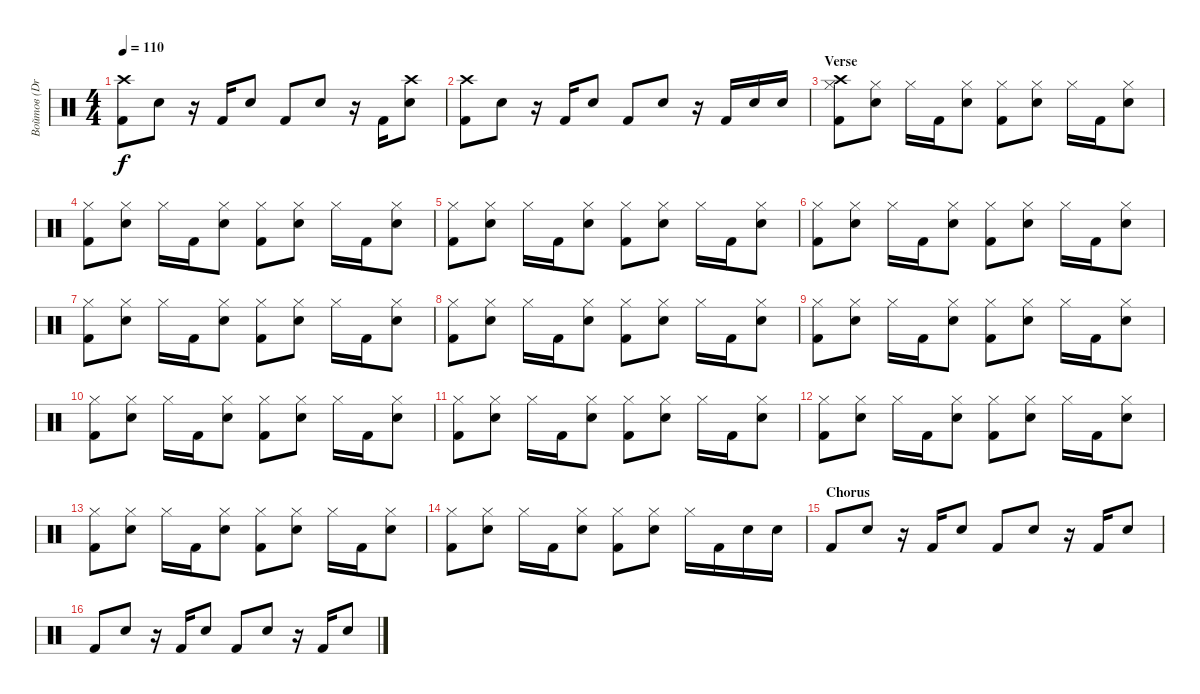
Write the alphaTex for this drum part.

\track ("Войтов (Drums)" "Войтов (Dr") {instrument percussion}
\staff {score}
\articulation defaults
\ts (4 4)
\tempo 110
\clef neutral
\ks c
("Kick (hit) 2" "Crash high (hit)").8{dy f} "Electric Snare (hit)".8 r.16 "Kick (hit) 2".16 "Electric Snare (hit)".8 "Kick (hit) 2".8 "Electric Snare (hit)".8 r.16 "Kick (hit) 2".16 ("Electric Snare (hit)" "Crash high (hit)").8 |
("Kick (hit) 2" "Crash high (hit)").8 "Electric Snare (hit)".8 r.16 "Kick (hit) 2".16 "Electric Snare (hit)".8 "Kick (hit) 2".8 "Electric Snare (hit)".8 r.16 "Kick (hit) 2".16 "Electric Snare (hit)".16 "Electric Snare (hit)".16 |
\section ("" "Verse")
("Kick (hit) 2" "Crash high (hit)" "Hi-Hat (closed)").8 ("Electric Snare (hit)" "Hi-Hat (closed)").8 "Hi-Hat (closed)".16 "Kick (hit) 2".16 ("Electric Snare (hit)" "Hi-Hat (closed)").8 ("Kick (hit) 2" "Hi-Hat (closed)").8 ("Electric Snare (hit)" "Hi-Hat (closed)").8 "Hi-Hat (closed)".16 "Kick (hit) 2".16 ("Electric Snare (hit)" "Hi-Hat (closed)").8 |
("Kick (hit) 2" "Hi-Hat (closed)").8 ("Electric Snare (hit)" "Hi-Hat (closed)").8 "Hi-Hat (closed)".16 "Kick (hit) 2".16 ("Electric Snare (hit)" "Hi-Hat (closed)").8 ("Kick (hit) 2" "Hi-Hat (closed)").8 ("Electric Snare (hit)" "Hi-Hat (closed)").8 "Hi-Hat (closed)".16 "Kick (hit) 2".16 ("Electric Snare (hit)" "Hi-Hat (closed)").8 |
("Kick (hit) 2" "Hi-Hat (closed)").8 ("Electric Snare (hit)" "Hi-Hat (closed)").8 "Hi-Hat (closed)".16 "Kick (hit) 2".16 ("Electric Snare (hit)" "Hi-Hat (closed)").8 ("Kick (hit) 2" "Hi-Hat (closed)").8 ("Electric Snare (hit)" "Hi-Hat (closed)").8 "Hi-Hat (closed)".16 "Kick (hit) 2".16 ("Electric Snare (hit)" "Hi-Hat (closed)").8 |
("Kick (hit) 2" "Hi-Hat (closed)").8 ("Electric Snare (hit)" "Hi-Hat (closed)").8 "Hi-Hat (closed)".16 "Kick (hit) 2".16 ("Electric Snare (hit)" "Hi-Hat (closed)").8 ("Kick (hit) 2" "Hi-Hat (closed)").8 ("Electric Snare (hit)" "Hi-Hat (closed)").8 "Hi-Hat (closed)".16 "Kick (hit) 2".16 ("Electric Snare (hit)" "Hi-Hat (closed)").8 |
("Kick (hit) 2" "Hi-Hat (closed)").8 ("Electric Snare (hit)" "Hi-Hat (closed)").8 "Hi-Hat (closed)".16 "Kick (hit) 2".16 ("Electric Snare (hit)" "Hi-Hat (closed)").8 ("Kick (hit) 2" "Hi-Hat (closed)").8 ("Electric Snare (hit)" "Hi-Hat (closed)").8 "Hi-Hat (closed)".16 "Kick (hit) 2".16 ("Electric Snare (hit)" "Hi-Hat (closed)").8 |
("Kick (hit) 2" "Hi-Hat (closed)").8 ("Electric Snare (hit)" "Hi-Hat (closed)").8 "Hi-Hat (closed)".16 "Kick (hit) 2".16 ("Electric Snare (hit)" "Hi-Hat (closed)").8 ("Kick (hit) 2" "Hi-Hat (closed)").8 ("Electric Snare (hit)" "Hi-Hat (closed)").8 "Hi-Hat (closed)".16 "Kick (hit) 2".16 ("Electric Snare (hit)" "Hi-Hat (closed)").8 |
("Kick (hit) 2" "Hi-Hat (closed)").8 ("Electric Snare (hit)" "Hi-Hat (closed)").8 "Hi-Hat (closed)".16 "Kick (hit) 2".16 ("Electric Snare (hit)" "Hi-Hat (closed)").8 ("Kick (hit) 2" "Hi-Hat (closed)").8 ("Electric Snare (hit)" "Hi-Hat (closed)").8 "Hi-Hat (closed)".16 "Kick (hit) 2".16 ("Electric Snare (hit)" "Hi-Hat (closed)").8 |
("Kick (hit) 2" "Hi-Hat (closed)").8 ("Electric Snare (hit)" "Hi-Hat (closed)").8 "Hi-Hat (closed)".16 "Kick (hit) 2".16 ("Electric Snare (hit)" "Hi-Hat (closed)").8 ("Kick (hit) 2" "Hi-Hat (closed)").8 ("Electric Snare (hit)" "Hi-Hat (closed)").8 "Hi-Hat (closed)".16 "Kick (hit) 2".16 ("Electric Snare (hit)" "Hi-Hat (closed)").8 |
("Kick (hit) 2" "Hi-Hat (closed)").8 ("Electric Snare (hit)" "Hi-Hat (closed)").8 "Hi-Hat (closed)".16 "Kick (hit) 2".16 ("Electric Snare (hit)" "Hi-Hat (closed)").8 ("Kick (hit) 2" "Hi-Hat (closed)").8 ("Electric Snare (hit)" "Hi-Hat (closed)").8 "Hi-Hat (closed)".16 "Kick (hit) 2".16 ("Electric Snare (hit)" "Hi-Hat (closed)").8 |
("Kick (hit) 2" "Hi-Hat (closed)").8 ("Electric Snare (hit)" "Hi-Hat (closed)").8 "Hi-Hat (closed)".16 "Kick (hit) 2".16 ("Electric Snare (hit)" "Hi-Hat (closed)").8 ("Kick (hit) 2" "Hi-Hat (closed)").8 ("Electric Snare (hit)" "Hi-Hat (closed)").8 "Hi-Hat (closed)".16 "Kick (hit) 2".16 ("Electric Snare (hit)" "Hi-Hat (closed)").8 |
("Kick (hit) 2" "Hi-Hat (closed)").8 ("Electric Snare (hit)" "Hi-Hat (closed)").8 "Hi-Hat (closed)".16 "Kick (hit) 2".16 ("Electric Snare (hit)" "Hi-Hat (closed)").8 ("Kick (hit) 2" "Hi-Hat (closed)").8 ("Electric Snare (hit)" "Hi-Hat (closed)").8 "Hi-Hat (closed)".16 "Kick (hit) 2".16 ("Electric Snare (hit)" "Hi-Hat (closed)").8 |
("Kick (hit) 2" "Hi-Hat (closed)").8 ("Electric Snare (hit)" "Hi-Hat (closed)").8 "Hi-Hat (closed)".16 "Kick (hit) 2".16 ("Electric Snare (hit)" "Hi-Hat (closed)").8 ("Kick (hit) 2" "Hi-Hat (closed)").8 ("Electric Snare (hit)" "Hi-Hat (closed)").8 "Hi-Hat (closed)".16 "Kick (hit) 2".16 "Electric Snare (hit)".16 "Electric Snare (hit)".16 |
\section ("" "Chorus")
"Kick (hit) 2".8 "Electric Snare (hit)".8 r.16 "Kick (hit) 2".16 "Electric Snare (hit)".8 "Kick (hit) 2".8 "Electric Snare (hit)".8 r.16 "Kick (hit) 2".16 "Electric Snare (hit)".8 |
"Kick (hit) 2".8 "Electric Snare (hit)".8 r.16 "Kick (hit) 2".16 "Electric Snare (hit)".8 "Kick (hit) 2".8 "Electric Snare (hit)".8 r.16 "Kick (hit) 2".16 "Electric Snare (hit)".8
